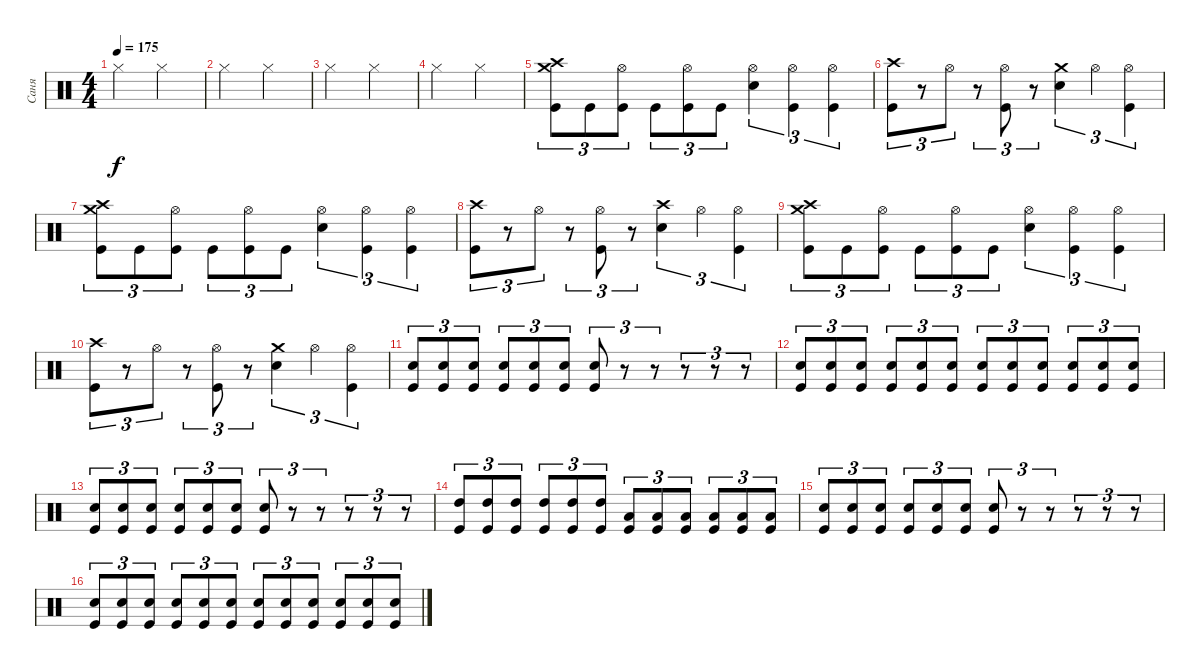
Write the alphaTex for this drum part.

\track ("Саня" "Саня") {instrument percussion}
\staff {score}
\articulation defaults
\ts (4 4)
\tempo 175
\clef neutral
\ks c "Hi-Hat (closed)".2{dy f} "Hi-Hat (closed)".2
|
"Hi-Hat (closed)".2 "Hi-Hat (closed)".2 |
"Hi-Hat (closed)".2 "Hi-Hat (closed)".2 |
"Hi-Hat (closed)".2 "Hi-Hat (closed)".2 |
("Crash medium (hit)" "Crash high (hit)" "Kick (hit)").8{tu (3 2)} "Kick (hit)".8{tu (3 2)} ("Hi-Hat (open)" "Kick (hit)").8{tu (3 2)} "Kick (hit)".8{tu (3 2)} ("Hi-Hat (open)" "Kick (hit)").8{tu (3 2)} "Kick (hit)".8{tu (3 2)} ("Hi-Hat (open)" "Electric Snare (hit)").4{tu (3 2)} ("Hi-Hat (open)" "Kick (hit)").4{tu (3 2)} ("Hi-Hat (open)" "Kick (hit)").4{tu (3 2)} |
("Crash high (hit)" "Kick (hit)").8{tu (3 2)} r.8{tu (3 2)} "Hi-Hat (open)".8{tu (3 2)} r.8{tu (3 2)} ("Hi-Hat (open)" "Kick (hit)").8{tu (3 2)} r.8{tu (3 2)} ("Crash medium (hit)" "Electric Snare (hit)").4{tu (3 2)} "Hi-Hat (open)".4{tu (3 2)} ("Hi-Hat (open)" "Kick (hit)").4{tu (3 2)} |
("Crash medium (hit)" "Crash high (hit)" "Kick (hit)").8{tu (3 2)} "Kick (hit)".8{tu (3 2)} ("Hi-Hat (open)" "Kick (hit)").8{tu (3 2)} "Kick (hit)".8{tu (3 2)} ("Hi-Hat (open)" "Kick (hit)").8{tu (3 2)} "Kick (hit)".8{tu (3 2)} ("Hi-Hat (open)" "Electric Snare (hit)").4{tu (3 2)} ("Hi-Hat (open)" "Kick (hit)").4{tu (3 2)} ("Hi-Hat (open)" "Kick (hit)").4{tu (3 2)} |
("Crash high (hit)" "Kick (hit)").8{tu (3 2)} r.8{tu (3 2)} "Hi-Hat (open)".8{tu (3 2)} r.8{tu (3 2)} ("Hi-Hat (open)" "Kick (hit)").8{tu (3 2)} r.8{tu (3 2)} ("Crash high (hit)" "Electric Snare (hit)").4{tu (3 2)} "Hi-Hat (open)".4{tu (3 2)} ("Hi-Hat (open)" "Kick (hit)").4{tu (3 2)} |
("Crash medium (hit)" "Crash high (hit)" "Kick (hit)").8{tu (3 2)} "Kick (hit)".8{tu (3 2)} ("Hi-Hat (open)" "Kick (hit)").8{tu (3 2)} "Kick (hit)".8{tu (3 2)} ("Hi-Hat (open)" "Kick (hit)").8{tu (3 2)} "Kick (hit)".8{tu (3 2)} ("Hi-Hat (open)" "Electric Snare (hit)").4{tu (3 2)} ("Hi-Hat (open)" "Kick (hit)").4{tu (3 2)} ("Hi-Hat (open)" "Kick (hit)").4{tu (3 2)} |
("Crash high (hit)" "Kick (hit)").8{tu (3 2)} r.8{tu (3 2)} "Hi-Hat (open)".8{tu (3 2)} r.8{tu (3 2)} ("Hi-Hat (open)" "Kick (hit)").8{tu (3 2)} r.8{tu (3 2)} ("Crash medium (hit)" "Electric Snare (hit)").4{tu (3 2)} "Hi-Hat (open)".4{tu (3 2)} ("Hi-Hat (open)" "Kick (hit)").4{tu (3 2)} |
("Electric Snare (hit)" "Kick (hit)").8{tu (3 2)} ("Electric Snare (hit)" "Kick (hit)").8{tu (3 2)} ("Electric Snare (hit)" "Kick (hit)").8{tu (3 2)} ("Electric Snare (hit)" "Kick (hit)").8{tu (3 2)} ("Electric Snare (hit)" "Kick (hit)").8{tu (3 2)} ("Electric Snare (hit)" "Kick (hit)").8{tu (3 2)} ("Electric Snare (hit)" "Kick (hit)").8{tu (3 2)} r.8{tu (3 2)} r.8{tu (3 2)} r.8{tu (3 2)} r.8{tu (3 2)} r.8{tu (3 2)} |
("Electric Snare (hit)" "Kick (hit)").8{tu (3 2)} ("Electric Snare (hit)" "Kick (hit)").8{tu (3 2)} ("Electric Snare (hit)" "Kick (hit)").8{tu (3 2)} ("Electric Snare (hit)" "Kick (hit)").8{tu (3 2)} ("Electric Snare (hit)" "Kick (hit)").8{tu (3 2)} ("Electric Snare (hit)" "Kick (hit)").8{tu (3 2)} ("Electric Snare (hit)" "Kick (hit)").8{tu (3 2)} ("Electric Snare (hit)" "Kick (hit)").8{tu (3 2)} ("Electric Snare (hit)" "Kick (hit)").8{tu (3 2)} ("Electric Snare (hit)" "Kick (hit)").8{tu (3 2)} ("Electric Snare (hit)" "Kick (hit)").8{tu (3 2)} ("Electric Snare (hit)" "Kick (hit)").8{tu (3 2)} |
("Electric Snare (hit)" "Kick (hit)").8{tu (3 2)} ("Electric Snare (hit)" "Kick (hit)").8{tu (3 2)} ("Electric Snare (hit)" "Kick (hit)").8{tu (3 2)} ("Electric Snare (hit)" "Kick (hit)").8{tu (3 2)} ("Electric Snare (hit)" "Kick (hit)").8{tu (3 2)} ("Electric Snare (hit)" "Kick (hit)").8{tu (3 2)} ("Electric Snare (hit)" "Kick (hit)").8{tu (3 2)} r.8{tu (3 2)} r.8{tu (3 2)} r.8{tu (3 2)} r.8{tu (3 2)} r.8{tu (3 2)} |
("High Tom (hit)" "Kick (hit)").8{tu (3 2)} ("High Tom (hit)" "Kick (hit)").8{tu (3 2)} ("High Tom (hit)" "Kick (hit)").8{tu (3 2)} ("High Tom (hit)" "Kick (hit)").8{tu (3 2)} ("High Tom (hit)" "Kick (hit)").8{tu (3 2)} ("High Tom (hit)" "Kick (hit)").8{tu (3 2)} ("Low Tom (hit)" "Kick (hit)").8{tu (3 2)} ("Low Tom (hit)" "Kick (hit)").8{tu (3 2)} ("Low Tom (hit)" "Kick (hit)").8{tu (3 2)} ("Low Tom (hit)" "Kick (hit)").8{tu (3 2)} ("Low Tom (hit)" "Kick (hit)").8{tu (3 2)} ("Low Tom (hit)" "Kick (hit)").8{tu (3 2)} |
("Electric Snare (hit)" "Kick (hit)").8{tu (3 2)} ("Electric Snare (hit)" "Kick (hit)").8{tu (3 2)} ("Electric Snare (hit)" "Kick (hit)").8{tu (3 2)} ("Electric Snare (hit)" "Kick (hit)").8{tu (3 2)} ("Electric Snare (hit)" "Kick (hit)").8{tu (3 2)} ("Electric Snare (hit)" "Kick (hit)").8{tu (3 2)} ("Electric Snare (hit)" "Kick (hit)").8{tu (3 2)} r.8{tu (3 2)} r.8{tu (3 2)} r.8{tu (3 2)} r.8{tu (3 2)} r.8{tu (3 2)} |
("Electric Snare (hit)" "Kick (hit)").8{tu (3 2)} ("Electric Snare (hit)" "Kick (hit)").8{tu (3 2)} ("Electric Snare (hit)" "Kick (hit)").8{tu (3 2)} ("Electric Snare (hit)" "Kick (hit)").8{tu (3 2)} ("Electric Snare (hit)" "Kick (hit)").8{tu (3 2)} ("Electric Snare (hit)" "Kick (hit)").8{tu (3 2)} ("Electric Snare (hit)" "Kick (hit)").8{tu (3 2)} ("Electric Snare (hit)" "Kick (hit)").8{tu (3 2)} ("Electric Snare (hit)" "Kick (hit)").8{tu (3 2)} ("Electric Snare (hit)" "Kick (hit)").8{tu (3 2)} ("Electric Snare (hit)" "Kick (hit)").8{tu (3 2)} ("Electric Snare (hit)" "Kick (hit)").8{tu (3 2)}
